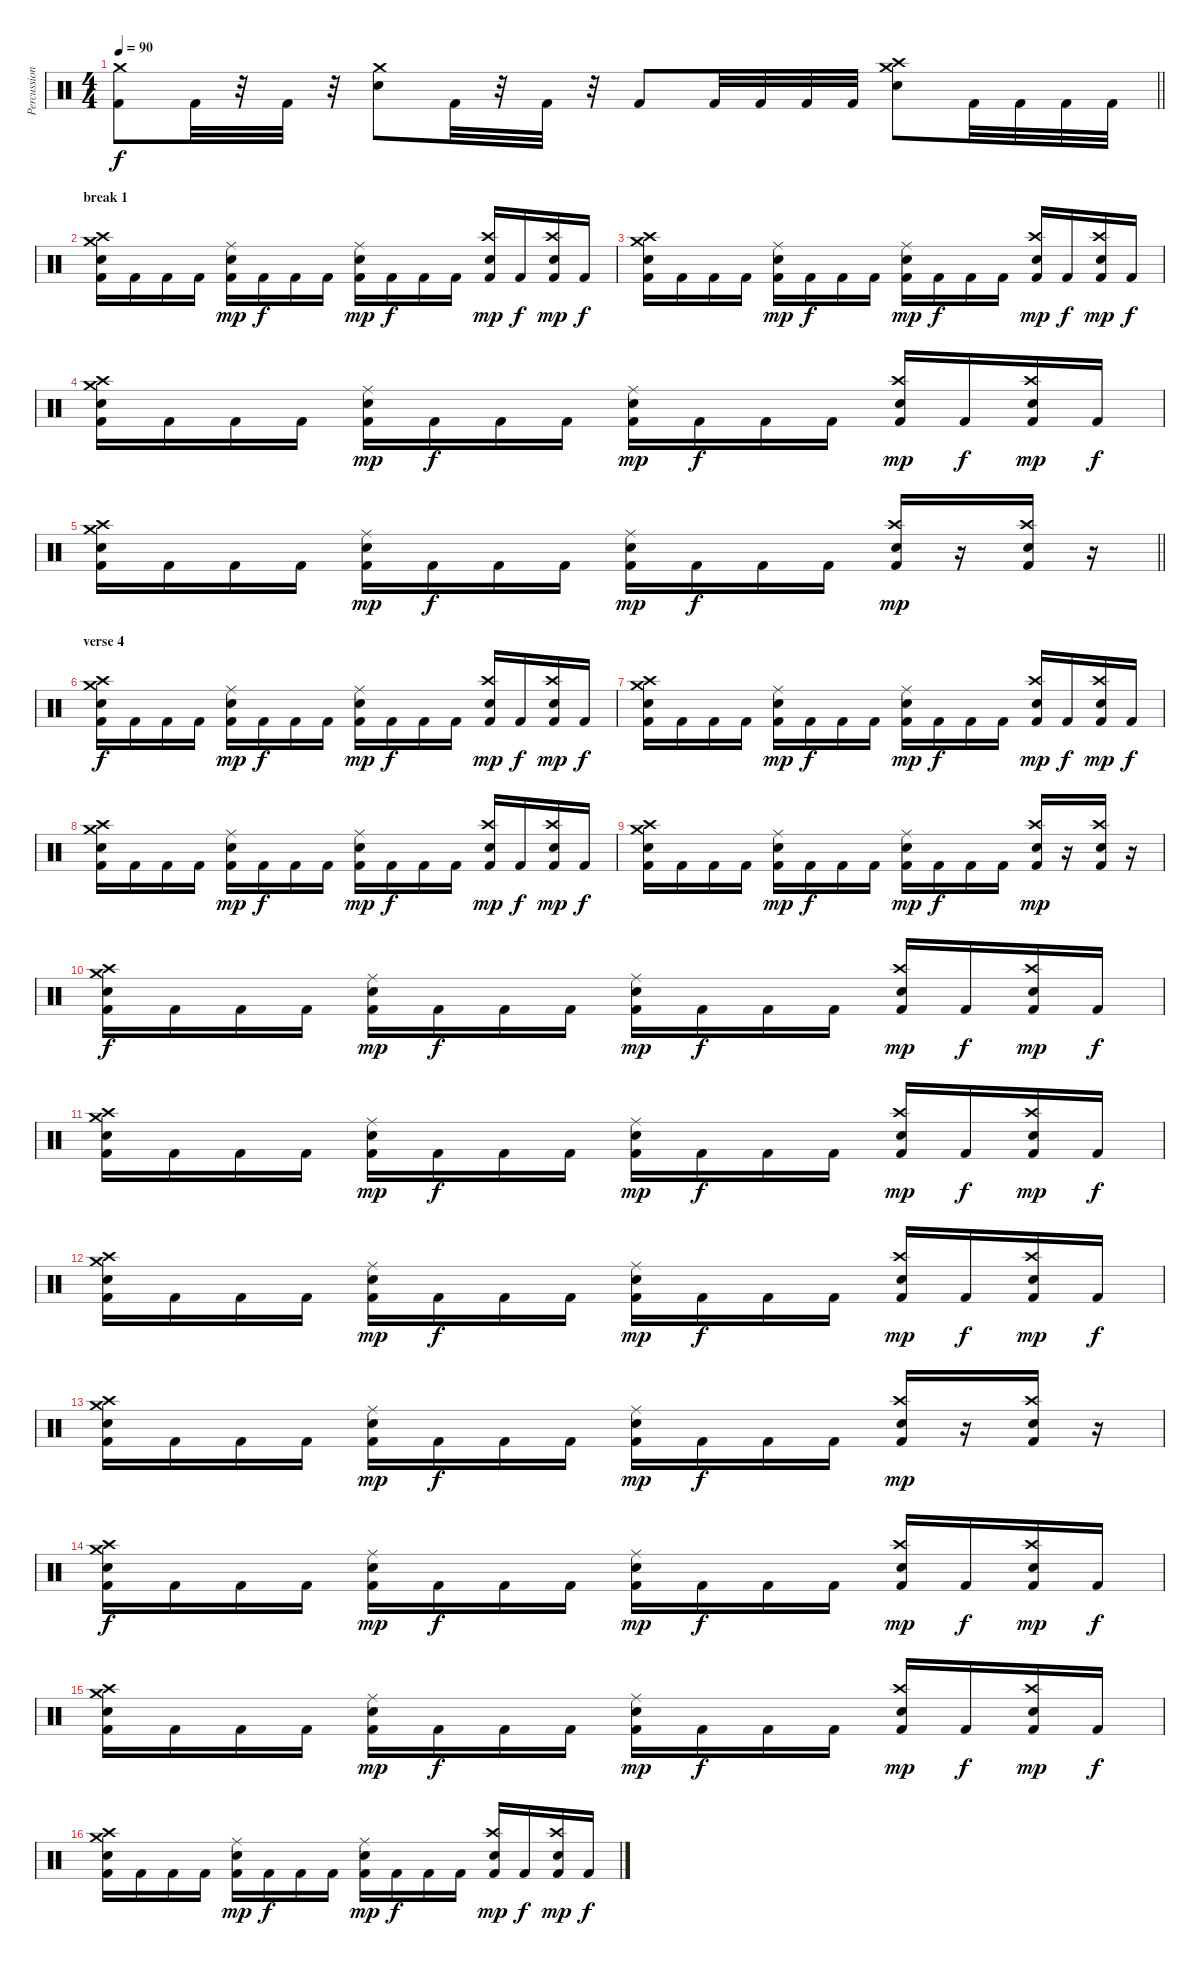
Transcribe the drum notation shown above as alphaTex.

\track ("Percussion" "Percussion") {instrument percussion}
\staff {score}
\articulation defaults
\ts (4 4)
\tempo 90
\clef neutral
\barLineRight lightlight
\ks c
("Crash medium (hit)" "Kick (hit) 2").8{dy f} "Kick (hit) 2".32 r.32 "Kick (hit) 2".32 r.32 ("Crash medium (hit)" "Electric Snare (hit)").8 "Kick (hit) 2".32 r.32 "Kick (hit) 2".32 r.32 "Kick (hit) 2".8 "Kick (hit) 2".32 "Kick (hit) 2".32 "Kick (hit) 2".32 "Kick (hit) 2".32 ("Crash high (hit)" "Crash medium (hit)" "Electric Snare (hit)").8 "Kick (hit) 2".32 "Kick (hit) 2".32 "Kick (hit) 2".32 "Kick (hit) 2".32 |
\section ("" "break 1")
("Crash high (hit)" "Crash medium (hit)" "Snare (hit) 2" "Kick (hit) 2").16 "Kick (hit) 2".16 "Kick (hit) 2".16 "Kick (hit) 2".16 ("Ride (middle)" "Snare (hit) 2" "Kick (hit) 2").16{dy mp} "Kick (hit) 2".16{dy f} "Kick (hit) 2".16 "Kick (hit) 2".16 ("Ride (middle)" "Snare (hit) 2" "Kick (hit) 2").16{dy mp} "Kick (hit) 2".16{dy f} "Kick (hit) 2".16 "Kick (hit) 2".16 ("Crash high (hit)" "Snare (hit) 2" "Kick (hit) 2").16{dy mp} "Kick (hit) 2".16{dy f} ("Crash high (hit)" "Snare (hit) 2" "Kick (hit) 2").16{dy mp} "Kick (hit) 2".16{dy f} |
("Crash high (hit)" "Crash medium (hit)" "Snare (hit) 2" "Kick (hit) 2").16 "Kick (hit) 2".16 "Kick (hit) 2".16 "Kick (hit) 2".16 ("Ride (middle)" "Snare (hit) 2" "Kick (hit) 2").16{dy mp} "Kick (hit) 2".16{dy f} "Kick (hit) 2".16 "Kick (hit) 2".16 ("Ride (middle)" "Snare (hit) 2" "Kick (hit) 2").16{dy mp} "Kick (hit) 2".16{dy f} "Kick (hit) 2".16 "Kick (hit) 2".16 ("Crash high (hit)" "Snare (hit) 2" "Kick (hit) 2").16{dy mp} "Kick (hit) 2".16{dy f} ("Crash high (hit)" "Snare (hit) 2" "Kick (hit) 2").16{dy mp} "Kick (hit) 2".16{dy f} |
("Crash high (hit)" "Crash medium (hit)" "Snare (hit) 2" "Kick (hit) 2").16 "Kick (hit) 2".16 "Kick (hit) 2".16 "Kick (hit) 2".16 ("Ride (middle)" "Snare (hit) 2" "Kick (hit) 2").16{dy mp} "Kick (hit) 2".16{dy f} "Kick (hit) 2".16 "Kick (hit) 2".16 ("Ride (middle)" "Snare (hit) 2" "Kick (hit) 2").16{dy mp} "Kick (hit) 2".16{dy f} "Kick (hit) 2".16 "Kick (hit) 2".16 ("Crash high (hit)" "Snare (hit) 2" "Kick (hit) 2").16{dy mp} "Kick (hit) 2".16{dy f} ("Crash high (hit)" "Snare (hit) 2" "Kick (hit) 2").16{dy mp} "Kick (hit) 2".16{dy f} |
\barLineRight lightlight
("Crash high (hit)" "Crash medium (hit)" "Snare (hit) 2" "Kick (hit) 2").16 "Kick (hit) 2".16 "Kick (hit) 2".16 "Kick (hit) 2".16 ("Ride (middle)" "Snare (hit) 2" "Kick (hit) 2").16{dy mp} "Kick (hit) 2".16{dy f} "Kick (hit) 2".16 "Kick (hit) 2".16 ("Ride (middle)" "Snare (hit) 2" "Kick (hit) 2").16{dy mp} "Kick (hit) 2".16{dy f} "Kick (hit) 2".16 "Kick (hit) 2".16 ("Crash high (hit)" "Snare (hit) 2" "Kick (hit) 2").16{dy mp} r.16 ("Crash high (hit)" "Snare (hit) 2" "Kick (hit) 2").16 r.16 |
\section ("" "verse 4")
("Crash high (hit)" "Crash medium (hit)" "Snare (hit) 2" "Kick (hit) 2").16{dy f} "Kick (hit) 2".16 "Kick (hit) 2".16 "Kick (hit) 2".16 ("Ride (middle)" "Snare (hit) 2" "Kick (hit) 2").16{dy mp} "Kick (hit) 2".16{dy f} "Kick (hit) 2".16 "Kick (hit) 2".16 ("Ride (middle)" "Snare (hit) 2" "Kick (hit) 2").16{dy mp} "Kick (hit) 2".16{dy f} "Kick (hit) 2".16 "Kick (hit) 2".16 ("Crash high (hit)" "Snare (hit) 2" "Kick (hit) 2").16{dy mp} "Kick (hit) 2".16{dy f} ("Crash high (hit)" "Snare (hit) 2" "Kick (hit) 2").16{dy mp} "Kick (hit) 2".16{dy f} |
("Crash high (hit)" "Crash medium (hit)" "Snare (hit) 2" "Kick (hit) 2").16 "Kick (hit) 2".16 "Kick (hit) 2".16 "Kick (hit) 2".16 ("Ride (middle)" "Snare (hit) 2" "Kick (hit) 2").16{dy mp} "Kick (hit) 2".16{dy f} "Kick (hit) 2".16 "Kick (hit) 2".16 ("Ride (middle)" "Snare (hit) 2" "Kick (hit) 2").16{dy mp} "Kick (hit) 2".16{dy f} "Kick (hit) 2".16 "Kick (hit) 2".16 ("Crash high (hit)" "Snare (hit) 2" "Kick (hit) 2").16{dy mp} "Kick (hit) 2".16{dy f} ("Crash high (hit)" "Snare (hit) 2" "Kick (hit) 2").16{dy mp} "Kick (hit) 2".16{dy f} |
("Crash high (hit)" "Crash medium (hit)" "Snare (hit) 2" "Kick (hit) 2").16 "Kick (hit) 2".16 "Kick (hit) 2".16 "Kick (hit) 2".16 ("Ride (middle)" "Snare (hit) 2" "Kick (hit) 2").16{dy mp} "Kick (hit) 2".16{dy f} "Kick (hit) 2".16 "Kick (hit) 2".16 ("Ride (middle)" "Snare (hit) 2" "Kick (hit) 2").16{dy mp} "Kick (hit) 2".16{dy f} "Kick (hit) 2".16 "Kick (hit) 2".16 ("Crash high (hit)" "Snare (hit) 2" "Kick (hit) 2").16{dy mp} "Kick (hit) 2".16{dy f} ("Crash high (hit)" "Snare (hit) 2" "Kick (hit) 2").16{dy mp} "Kick (hit) 2".16{dy f} |
("Crash high (hit)" "Crash medium (hit)" "Snare (hit) 2" "Kick (hit) 2").16 "Kick (hit) 2".16 "Kick (hit) 2".16 "Kick (hit) 2".16 ("Ride (middle)" "Snare (hit) 2" "Kick (hit) 2").16{dy mp} "Kick (hit) 2".16{dy f} "Kick (hit) 2".16 "Kick (hit) 2".16 ("Ride (middle)" "Snare (hit) 2" "Kick (hit) 2").16{dy mp} "Kick (hit) 2".16{dy f} "Kick (hit) 2".16 "Kick (hit) 2".16 ("Crash high (hit)" "Snare (hit) 2" "Kick (hit) 2").16{dy mp} r.16 ("Crash high (hit)" "Snare (hit) 2" "Kick (hit) 2").16 r.16 |
("Crash high (hit)" "Crash medium (hit)" "Snare (hit) 2" "Kick (hit) 2").16{dy f} "Kick (hit) 2".16 "Kick (hit) 2".16 "Kick (hit) 2".16 ("Ride (middle)" "Snare (hit) 2" "Kick (hit) 2").16{dy mp} "Kick (hit) 2".16{dy f} "Kick (hit) 2".16 "Kick (hit) 2".16 ("Ride (middle)" "Snare (hit) 2" "Kick (hit) 2").16{dy mp} "Kick (hit) 2".16{dy f} "Kick (hit) 2".16 "Kick (hit) 2".16 ("Crash high (hit)" "Snare (hit) 2" "Kick (hit) 2").16{dy mp} "Kick (hit) 2".16{dy f} ("Crash high (hit)" "Snare (hit) 2" "Kick (hit) 2").16{dy mp} "Kick (hit) 2".16{dy f} |
("Crash high (hit)" "Crash medium (hit)" "Snare (hit) 2" "Kick (hit) 2").16 "Kick (hit) 2".16 "Kick (hit) 2".16 "Kick (hit) 2".16 ("Ride (middle)" "Snare (hit) 2" "Kick (hit) 2").16{dy mp} "Kick (hit) 2".16{dy f} "Kick (hit) 2".16 "Kick (hit) 2".16 ("Ride (middle)" "Snare (hit) 2" "Kick (hit) 2").16{dy mp} "Kick (hit) 2".16{dy f} "Kick (hit) 2".16 "Kick (hit) 2".16 ("Crash high (hit)" "Snare (hit) 2" "Kick (hit) 2").16{dy mp} "Kick (hit) 2".16{dy f} ("Crash high (hit)" "Snare (hit) 2" "Kick (hit) 2").16{dy mp} "Kick (hit) 2".16{dy f} |
("Crash high (hit)" "Crash medium (hit)" "Snare (hit) 2" "Kick (hit) 2").16 "Kick (hit) 2".16 "Kick (hit) 2".16 "Kick (hit) 2".16 ("Ride (middle)" "Snare (hit) 2" "Kick (hit) 2").16{dy mp} "Kick (hit) 2".16{dy f} "Kick (hit) 2".16 "Kick (hit) 2".16 ("Ride (middle)" "Snare (hit) 2" "Kick (hit) 2").16{dy mp} "Kick (hit) 2".16{dy f} "Kick (hit) 2".16 "Kick (hit) 2".16 ("Crash high (hit)" "Snare (hit) 2" "Kick (hit) 2").16{dy mp} "Kick (hit) 2".16{dy f} ("Crash high (hit)" "Snare (hit) 2" "Kick (hit) 2").16{dy mp} "Kick (hit) 2".16{dy f} |
("Crash high (hit)" "Crash medium (hit)" "Snare (hit) 2" "Kick (hit) 2").16 "Kick (hit) 2".16 "Kick (hit) 2".16 "Kick (hit) 2".16 ("Ride (middle)" "Snare (hit) 2" "Kick (hit) 2").16{dy mp} "Kick (hit) 2".16{dy f} "Kick (hit) 2".16 "Kick (hit) 2".16 ("Ride (middle)" "Snare (hit) 2" "Kick (hit) 2").16{dy mp} "Kick (hit) 2".16{dy f} "Kick (hit) 2".16 "Kick (hit) 2".16 ("Crash high (hit)" "Snare (hit) 2" "Kick (hit) 2").16{dy mp} r.16 ("Crash high (hit)" "Snare (hit) 2" "Kick (hit) 2").16 r.16 |
("Crash high (hit)" "Crash medium (hit)" "Snare (hit) 2" "Kick (hit) 2").16{dy f} "Kick (hit) 2".16 "Kick (hit) 2".16 "Kick (hit) 2".16 ("Ride (middle)" "Snare (hit) 2" "Kick (hit) 2").16{dy mp} "Kick (hit) 2".16{dy f} "Kick (hit) 2".16 "Kick (hit) 2".16 ("Ride (middle)" "Snare (hit) 2" "Kick (hit) 2").16{dy mp} "Kick (hit) 2".16{dy f} "Kick (hit) 2".16 "Kick (hit) 2".16 ("Crash high (hit)" "Snare (hit) 2" "Kick (hit) 2").16{dy mp} "Kick (hit) 2".16{dy f} ("Crash high (hit)" "Snare (hit) 2" "Kick (hit) 2").16{dy mp} "Kick (hit) 2".16{dy f} |
("Crash high (hit)" "Crash medium (hit)" "Snare (hit) 2" "Kick (hit) 2").16 "Kick (hit) 2".16 "Kick (hit) 2".16 "Kick (hit) 2".16 ("Ride (middle)" "Snare (hit) 2" "Kick (hit) 2").16{dy mp} "Kick (hit) 2".16{dy f} "Kick (hit) 2".16 "Kick (hit) 2".16 ("Ride (middle)" "Snare (hit) 2" "Kick (hit) 2").16{dy mp} "Kick (hit) 2".16{dy f} "Kick (hit) 2".16 "Kick (hit) 2".16 ("Crash high (hit)" "Snare (hit) 2" "Kick (hit) 2").16{dy mp} "Kick (hit) 2".16{dy f} ("Crash high (hit)" "Snare (hit) 2" "Kick (hit) 2").16{dy mp} "Kick (hit) 2".16{dy f} |
("Crash high (hit)" "Crash medium (hit)" "Snare (hit) 2" "Kick (hit) 2").16 "Kick (hit) 2".16 "Kick (hit) 2".16 "Kick (hit) 2".16 ("Ride (middle)" "Snare (hit) 2" "Kick (hit) 2").16{dy mp} "Kick (hit) 2".16{dy f} "Kick (hit) 2".16 "Kick (hit) 2".16 ("Ride (middle)" "Snare (hit) 2" "Kick (hit) 2").16{dy mp} "Kick (hit) 2".16{dy f} "Kick (hit) 2".16 "Kick (hit) 2".16 ("Crash high (hit)" "Snare (hit) 2" "Kick (hit) 2").16{dy mp} "Kick (hit) 2".16{dy f} ("Crash high (hit)" "Snare (hit) 2" "Kick (hit) 2").16{dy mp} "Kick (hit) 2".16{dy f}
